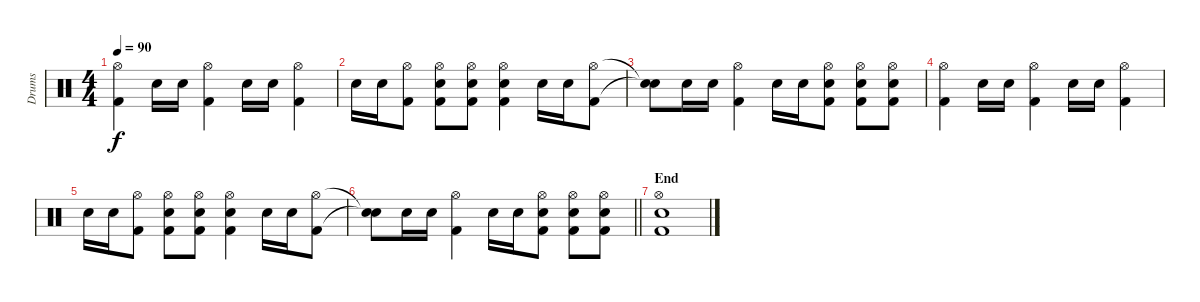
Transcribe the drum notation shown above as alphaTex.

\track ("Drums" "Drums") {instrument percussion}
\staff {score}
\articulation defaults
\ts (4 4)
\tempo 90
\clef neutral
\ks c
("Hi-Hat (open)" "Kick (hit) 2").4{dy f} "Snare (hit) 2".16 "Snare (hit) 2".16 ("Hi-Hat (open)" "Kick (hit) 2").4 "Snare (hit) 2".16 "Snare (hit) 2".16 ("Hi-Hat (open)" "Kick (hit) 2").4 |
"Snare (hit) 2".16 "Snare (hit) 2".16 ("Hi-Hat (open)" "Kick (hit) 2").8 ("Hi-Hat (open)" "Snare (hit) 2" "Kick (hit) 2").8 ("Hi-Hat (open)" "Snare (hit) 2" "Kick (hit) 2").8 ("Hi-Hat (open)" "Snare (hit) 2" "Kick (hit) 2").4 "Snare (hit) 2".16 "Snare (hit) 2".16 ("Hi-Hat (open)" "Kick (hit) 2").8 |
("Snare (hit)"{t} "Snare (hit)"{t}).8 "Snare (hit) 2".16 "Snare (hit) 2".16 ("Hi-Hat (open)" "Kick (hit) 2").4 "Snare (hit) 2".16 "Snare (hit) 2".16 ("Hi-Hat (open)" "Snare (hit) 2" "Kick (hit) 2").8 ("Hi-Hat (open)" "Snare (hit) 2" "Kick (hit) 2").8 ("Hi-Hat (open)" "Snare (hit) 2" "Kick (hit) 2").8 |
("Hi-Hat (open)" "Kick (hit) 2").4 "Snare (hit) 2".16 "Snare (hit) 2".16 ("Hi-Hat (open)" "Kick (hit) 2").4 "Snare (hit) 2".16 "Snare (hit) 2".16 ("Hi-Hat (open)" "Kick (hit) 2").4 |
"Snare (hit) 2".16 "Snare (hit) 2".16 ("Hi-Hat (open)" "Kick (hit) 2").8 ("Hi-Hat (open)" "Snare (hit) 2" "Kick (hit) 2").8 ("Hi-Hat (open)" "Snare (hit) 2" "Kick (hit) 2").8 ("Hi-Hat (open)" "Snare (hit) 2" "Kick (hit) 2").4 "Snare (hit) 2".16 "Snare (hit) 2".16 ("Hi-Hat (open)" "Kick (hit) 2").8 |
\barLineRight lightlight
("Snare (hit)"{t} "Snare (hit)"{t}).8 "Snare (hit) 2".16 "Snare (hit) 2".16 ("Hi-Hat (open)" "Kick (hit) 2").4 "Snare (hit) 2".16 "Snare (hit) 2".16 ("Hi-Hat (open)" "Snare (hit) 2" "Kick (hit) 2").8 ("Hi-Hat (open)" "Snare (hit) 2" "Kick (hit) 2").8 ("Hi-Hat (open)" "Snare (hit) 2" "Kick (hit) 2").8 |
\section ("" "End")
("Hi-Hat (open)" "Snare (hit) 2" "Kick (hit) 2").1
